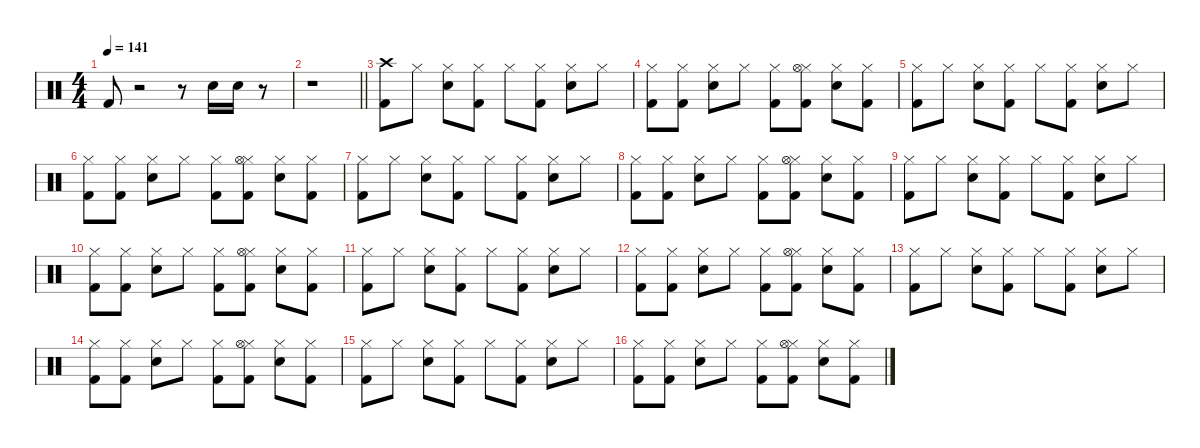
\defaultSystemsLayout 4
\hideDynamics
\bracketExtendMode nobrackets
\singleTrackTrackNamePolicy hidden
\multiTrackTrackNamePolicy hidden
\otherSystemsTrackNameOrientation horizontal
\track ("Drum" "drm.") {instrument percussion}
\staff {score}
\articulation defaults
\ts (4 4)
\tempo 141
\clef neutral
\ks c "Kick (hit) 2".8{dy fff beam Up}
r.2{beam Up} r.8{beam Up} "Snare (hit) 2".16{beam Down} "Snare (hit) 2".16{beam Down} r.8{beam Down} |
\barLineRight lightlight
r.1{beam Down} |
("Crash high (hit)" "Kick (hit) 2").8{beam Down} "Hi-Hat (closed)".8{dy f beam Down} ("Hi-Hat (closed)" "Snare (hit) 2").8{dy fff beam Down} ("Hi-Hat (closed)" "Kick (hit) 2").8{beam Down} "Hi-Hat (closed)".8{beam Down} ("Hi-Hat (closed)" "Kick (hit) 2").8{beam Down} ("Hi-Hat (closed)" "Snare (hit) 2").8{beam Down} "Hi-Hat (closed)".8{dy f beam Down} |
("Hi-Hat (closed)" "Kick (hit) 2").8{dy fff beam Down} ("Hi-Hat (closed)" "Kick (hit) 2").8{dy f beam Down} ("Hi-Hat (closed)" "Snare (hit) 2").8{dy fff beam Down} "Hi-Hat (closed)".8{dy f beam Down} ("Hi-Hat (closed)" "Kick (hit) 2").8{dy fff beam Down} ("Hi-Hat (closed)" "Kick (hit) 2" "Hi-Hat (open)").8{beam Down} ("Hi-Hat (closed)" "Snare (hit) 2").8{beam Down} ("Hi-Hat (closed)" "Kick (hit) 2").8{beam Down} |
("Hi-Hat (closed)" "Kick (hit) 2").8{beam Down} "Hi-Hat (closed)".8{dy f beam Down} ("Snare (hit) 2" "Hi-Hat (closed)").8{beam Down} ("Kick (hit) 2" "Hi-Hat (closed)").8{beam Down} "Hi-Hat (closed)".8{beam Down} ("Kick (hit) 2" "Hi-Hat (closed)").8{beam Down} ("Snare (hit) 2" "Hi-Hat (closed)").8{beam Down} "Hi-Hat (closed)".8{beam Down} |
("Hi-Hat (closed)" "Kick (hit) 2").8{dy fff beam Down} ("Hi-Hat (closed)" "Kick (hit) 2").8{dy f beam Down} ("Hi-Hat (closed)" "Snare (hit) 2").8{dy fff beam Down} "Hi-Hat (closed)".8{dy f beam Down} ("Kick (hit) 2" "Hi-Hat (closed)").8{dy fff beam Down} ("Hi-Hat (closed)" "Hi-Hat (open)" "Kick (hit) 2").8{dy f beam Down} ("Hi-Hat (closed)" "Snare (hit) 2").8{dy fff beam Down} ("Hi-Hat (closed)" "Kick (hit) 2").8{dy f beam Down} |
("Hi-Hat (closed)" "Kick (hit) 2").8{dy fff beam Down} "Hi-Hat (closed)".8{dy f beam Down} ("Hi-Hat (closed)" "Snare (hit) 2").8{dy fff beam Down} ("Hi-Hat (closed)" "Kick (hit) 2").8{beam Down} "Hi-Hat (closed)".8{beam Down} ("Hi-Hat (closed)" "Kick (hit) 2").8{beam Down} ("Hi-Hat (closed)" "Snare (hit) 2").8{beam Down} "Hi-Hat (closed)".8{dy f beam Down} |
("Hi-Hat (closed)" "Kick (hit) 2").8{dy fff beam Down} ("Hi-Hat (closed)" "Kick (hit) 2").8{beam Down} ("Hi-Hat (closed)" "Snare (hit) 2").8{beam Down} "Hi-Hat (closed)".8{dy f beam Down} ("Hi-Hat (closed)" "Kick (hit) 2").8{dy fff beam Down} ("Hi-Hat (closed)" "Kick (hit) 2" "Hi-Hat (open)").8{beam Down} ("Hi-Hat (closed)" "Snare (hit) 2").8{beam Down} ("Hi-Hat (closed)" "Kick (hit) 2").8{dy f beam Down} |
("Hi-Hat (closed)" "Kick (hit) 2").8{dy fff beam Down} "Hi-Hat (closed)".8{dy f beam Down} ("Hi-Hat (closed)" "Snare (hit) 2").8{dy fff beam Down} ("Hi-Hat (closed)" "Kick (hit) 2").8{beam Down} "Hi-Hat (closed)".8{beam Down} ("Hi-Hat (closed)" "Kick (hit) 2").8{dy f beam Down} ("Hi-Hat (closed)" "Snare (hit) 2").8{dy fff beam Down} "Hi-Hat (closed)".8{dy f beam Down} |
("Hi-Hat (closed)" "Kick (hit) 2").8{dy fff beam Down} ("Hi-Hat (closed)" "Kick (hit) 2").8{beam Down} ("Hi-Hat (closed)" "Snare (hit) 2").8{beam Down} "Hi-Hat (closed)".8{dy f beam Down} ("Hi-Hat (closed)" "Kick (hit) 2").8{dy fff beam Down} ("Hi-Hat (closed)" "Kick (hit) 2" "Hi-Hat (open)").8{beam Down} ("Hi-Hat (closed)" "Snare (hit) 2").8{beam Down} ("Hi-Hat (closed)" "Kick (hit) 2").8{beam Down} |
("Hi-Hat (closed)" "Kick (hit) 2").8{beam Down} "Hi-Hat (closed)".8{dy f beam Down} ("Hi-Hat (closed)" "Snare (hit) 2").8{dy fff beam Down} ("Hi-Hat (closed)" "Kick (hit) 2").8{beam Down} "Hi-Hat (closed)".8{beam Down} ("Hi-Hat (closed)" "Kick (hit) 2").8{dy f beam Down} ("Hi-Hat (closed)" "Snare (hit) 2").8{dy fff beam Down} "Hi-Hat (closed)".8{dy f beam Down} |
("Hi-Hat (closed)" "Kick (hit) 2").8{dy fff beam Down} ("Hi-Hat (closed)" "Kick (hit) 2").8{beam Down} ("Hi-Hat (closed)" "Snare (hit) 2").8{beam Down} "Hi-Hat (closed)".8{dy f beam Down} ("Hi-Hat (closed)" "Kick (hit) 2").8{dy fff beam Down} ("Hi-Hat (closed)" "Kick (hit) 2" "Hi-Hat (open)").8{beam Down} ("Hi-Hat (closed)" "Snare (hit) 2").8{beam Down} ("Hi-Hat (closed)" "Kick (hit) 2").8{beam Down} |
("Hi-Hat (closed)" "Kick (hit) 2").8{beam Down} "Hi-Hat (closed)".8{dy f beam Down} ("Hi-Hat (closed)" "Snare (hit) 2").8{dy fff beam Down} ("Hi-Hat (closed)" "Kick (hit) 2").8{beam Down} "Hi-Hat (closed)".8{beam Down} ("Hi-Hat (closed)" "Kick (hit) 2").8{dy f beam Down} ("Hi-Hat (closed)" "Snare (hit) 2").8{dy fff beam Down} "Hi-Hat (closed)".8{dy f beam Down} |
("Hi-Hat (closed)" "Kick (hit) 2").8{dy fff beam Down} ("Hi-Hat (closed)" "Kick (hit) 2").8{beam Down} ("Hi-Hat (closed)" "Snare (hit) 2").8{beam Down} "Hi-Hat (closed)".8{dy f beam Down} ("Hi-Hat (closed)" "Kick (hit) 2").8{dy fff beam Down} ("Hi-Hat (closed)" "Kick (hit) 2" "Hi-Hat (open)").8{beam Down} ("Hi-Hat (closed)" "Snare (hit) 2").8{beam Down} ("Hi-Hat (closed)" "Kick (hit) 2").8{beam Down} |
("Hi-Hat (closed)" "Kick (hit) 2").8{beam Down} "Hi-Hat (closed)".8{dy f beam Down} ("Hi-Hat (closed)" "Snare (hit) 2").8{dy fff beam Down} ("Hi-Hat (closed)" "Kick (hit) 2").8{beam Down} "Hi-Hat (closed)".8{beam Down} ("Hi-Hat (closed)" "Kick (hit) 2").8{dy f beam Down} ("Hi-Hat (closed)" "Snare (hit) 2").8{dy fff beam Down} "Hi-Hat (closed)".8{dy f beam Down} |
("Hi-Hat (closed)" "Kick (hit) 2").8{dy fff beam Down} ("Hi-Hat (closed)" "Kick (hit) 2").8{beam Down} ("Hi-Hat (closed)" "Snare (hit) 2").8{beam Down} "Hi-Hat (closed)".8{dy f beam Down} ("Hi-Hat (closed)" "Kick (hit) 2").8{dy fff beam Down} ("Hi-Hat (closed)" "Kick (hit) 2" "Hi-Hat (open)").8{beam Down} ("Hi-Hat (closed)" "Snare (hit) 2").8{beam Down} ("Hi-Hat (closed)" "Kick (hit) 2").8{beam Down}
